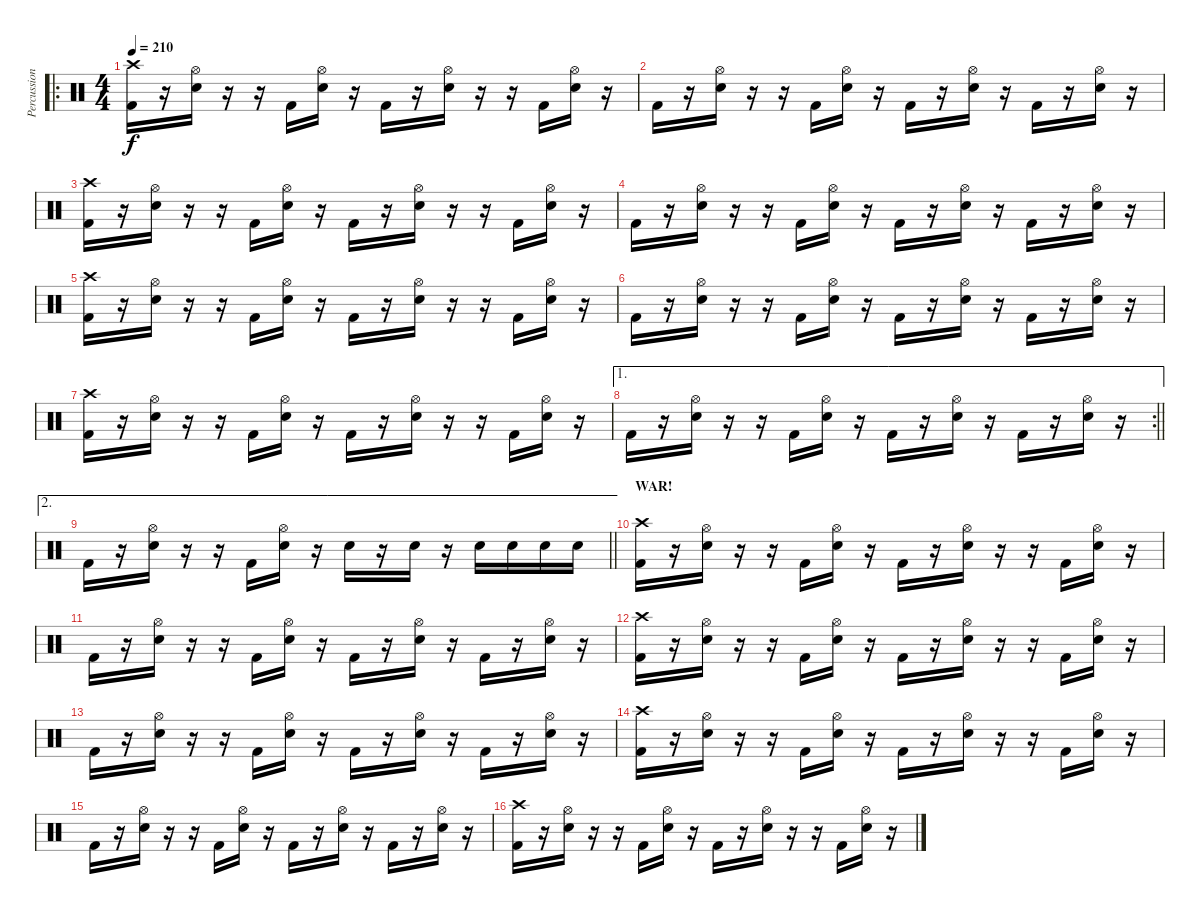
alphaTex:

\track ("Percussions" "Percussion") {instrument percussion}
\staff {score}
\articulation defaults
\ro
\ts (4 4)
\section ("" "")
\tempo 210
\clef neutral
\ks c
("Crash high (hit)" "Kick (hit) 2").16{dy f} r.16 ("Hi-Hat (open)" "Snare (hit) 2").16 r.16 r.16 "Kick (hit) 2".16 ("Hi-Hat (open)" "Snare (hit) 2").16 r.16 "Kick (hit) 2".16 r.16 ("Hi-Hat (open)" "Snare (hit) 2").16 r.16 r.16 "Kick (hit) 2".16 ("Hi-Hat (open)" "Snare (hit) 2").16 r.16 |
"Kick (hit) 2".16 r.16 ("Hi-Hat (open)" "Snare (hit) 2").16 r.16 r.16 "Kick (hit) 2".16 ("Hi-Hat (open)" "Snare (hit) 2").16 r.16 "Kick (hit) 2".16 r.16 ("Hi-Hat (open)" "Snare (hit) 2").16 r.16 "Kick (hit) 2".16 r.16 ("Hi-Hat (open)" "Snare (hit) 2").16 r.16 |
("Crash high (hit)" "Kick (hit) 2").16 r.16 ("Hi-Hat (open)" "Snare (hit) 2").16 r.16 r.16 "Kick (hit) 2".16 ("Hi-Hat (open)" "Snare (hit) 2").16 r.16 "Kick (hit) 2".16 r.16 ("Hi-Hat (open)" "Snare (hit) 2").16 r.16 r.16 "Kick (hit) 2".16 ("Hi-Hat (open)" "Snare (hit) 2").16 r.16 |
"Kick (hit) 2".16 r.16 ("Hi-Hat (open)" "Snare (hit) 2").16 r.16 r.16 "Kick (hit) 2".16 ("Hi-Hat (open)" "Snare (hit) 2").16 r.16 "Kick (hit) 2".16 r.16 ("Hi-Hat (open)" "Snare (hit) 2").16 r.16 "Kick (hit) 2".16 r.16 ("Hi-Hat (open)" "Snare (hit) 2").16 r.16 |
("Crash high (hit)" "Kick (hit) 2").16 r.16 ("Hi-Hat (open)" "Snare (hit) 2").16 r.16 r.16 "Kick (hit) 2".16 ("Hi-Hat (open)" "Snare (hit) 2").16 r.16 "Kick (hit) 2".16 r.16 ("Hi-Hat (open)" "Snare (hit) 2").16 r.16 r.16 "Kick (hit) 2".16 ("Hi-Hat (open)" "Snare (hit) 2").16 r.16 |
"Kick (hit) 2".16 r.16 ("Hi-Hat (open)" "Snare (hit) 2").16 r.16 r.16 "Kick (hit) 2".16 ("Hi-Hat (open)" "Snare (hit) 2").16 r.16 "Kick (hit) 2".16 r.16 ("Hi-Hat (open)" "Snare (hit) 2").16 r.16 "Kick (hit) 2".16 r.16 ("Hi-Hat (open)" "Snare (hit) 2").16 r.16 |
("Crash high (hit)" "Kick (hit) 2").16 r.16 ("Hi-Hat (open)" "Snare (hit) 2").16 r.16 r.16 "Kick (hit) 2".16 ("Hi-Hat (open)" "Snare (hit) 2").16 r.16 "Kick (hit) 2".16 r.16 ("Hi-Hat (open)" "Snare (hit) 2").16 r.16 r.16 "Kick (hit) 2".16 ("Hi-Hat (open)" "Snare (hit) 2").16 r.16 |
\ae 1
\rc 2
\barLineRight lightlight "Kick (hit) 2".16
r.16 ("Hi-Hat (open)" "Snare (hit) 2").16 r.16 r.16 "Kick (hit) 2".16 ("Hi-Hat (open)" "Snare (hit) 2").16 r.16 "Kick (hit) 2".16 r.16 ("Hi-Hat (open)" "Snare (hit) 2").16 r.16 "Kick (hit) 2".16 r.16 ("Hi-Hat (open)" "Snare (hit) 2").16 r.16 |
\ae 2
\barLineRight lightlight "Kick (hit) 2".16
r.16 ("Hi-Hat (open)" "Snare (hit) 2").16 r.16 r.16 "Kick (hit) 2".16 ("Hi-Hat (open)" "Snare (hit) 2").16 r.16 "Snare (hit) 2".16 r.16 "Snare (hit) 2".16 r.16 "Snare (hit) 2".16 "Snare (hit) 2".16 "Snare (hit) 2".16 "Snare (hit) 2".16 |
\section ("" "WAR!")
("Crash high (hit)" "Kick (hit) 2").16 r.16 ("Hi-Hat (open)" "Snare (hit) 2").16 r.16 r.16 "Kick (hit) 2".16 ("Hi-Hat (open)" "Snare (hit) 2").16 r.16 "Kick (hit) 2".16 r.16 ("Hi-Hat (open)" "Snare (hit) 2").16 r.16 r.16 "Kick (hit) 2".16 ("Hi-Hat (open)" "Snare (hit) 2").16 r.16 |
"Kick (hit) 2".16 r.16 ("Hi-Hat (open)" "Snare (hit) 2").16 r.16 r.16 "Kick (hit) 2".16 ("Hi-Hat (open)" "Snare (hit) 2").16 r.16 "Kick (hit) 2".16 r.16 ("Hi-Hat (open)" "Snare (hit) 2").16 r.16 "Kick (hit) 2".16 r.16 ("Hi-Hat (open)" "Snare (hit) 2").16 r.16 |
("Crash high (hit)" "Kick (hit) 2").16 r.16 ("Hi-Hat (open)" "Snare (hit) 2").16 r.16 r.16 "Kick (hit) 2".16 ("Hi-Hat (open)" "Snare (hit) 2").16 r.16 "Kick (hit) 2".16 r.16 ("Hi-Hat (open)" "Snare (hit) 2").16 r.16 r.16 "Kick (hit) 2".16 ("Hi-Hat (open)" "Snare (hit) 2").16 r.16 |
"Kick (hit) 2".16 r.16 ("Hi-Hat (open)" "Snare (hit) 2").16 r.16 r.16 "Kick (hit) 2".16 ("Hi-Hat (open)" "Snare (hit) 2").16 r.16 "Kick (hit) 2".16 r.16 ("Hi-Hat (open)" "Snare (hit) 2").16 r.16 "Kick (hit) 2".16 r.16 ("Hi-Hat (open)" "Snare (hit) 2").16 r.16 |
("Crash high (hit)" "Kick (hit) 2").16 r.16 ("Hi-Hat (open)" "Snare (hit) 2").16 r.16 r.16 "Kick (hit) 2".16 ("Hi-Hat (open)" "Snare (hit) 2").16 r.16 "Kick (hit) 2".16 r.16 ("Hi-Hat (open)" "Snare (hit) 2").16 r.16 r.16 "Kick (hit) 2".16 ("Hi-Hat (open)" "Snare (hit) 2").16 r.16 |
"Kick (hit) 2".16 r.16 ("Hi-Hat (open)" "Snare (hit) 2").16 r.16 r.16 "Kick (hit) 2".16 ("Hi-Hat (open)" "Snare (hit) 2").16 r.16 "Kick (hit) 2".16 r.16 ("Hi-Hat (open)" "Snare (hit) 2").16 r.16 "Kick (hit) 2".16 r.16 ("Hi-Hat (open)" "Snare (hit) 2").16 r.16 |
("Crash high (hit)" "Kick (hit) 2").16 r.16 ("Hi-Hat (open)" "Snare (hit) 2").16 r.16 r.16 "Kick (hit) 2".16 ("Hi-Hat (open)" "Snare (hit) 2").16 r.16 "Kick (hit) 2".16 r.16 ("Hi-Hat (open)" "Snare (hit) 2").16 r.16 r.16 "Kick (hit) 2".16 ("Hi-Hat (open)" "Snare (hit) 2").16 r.16
